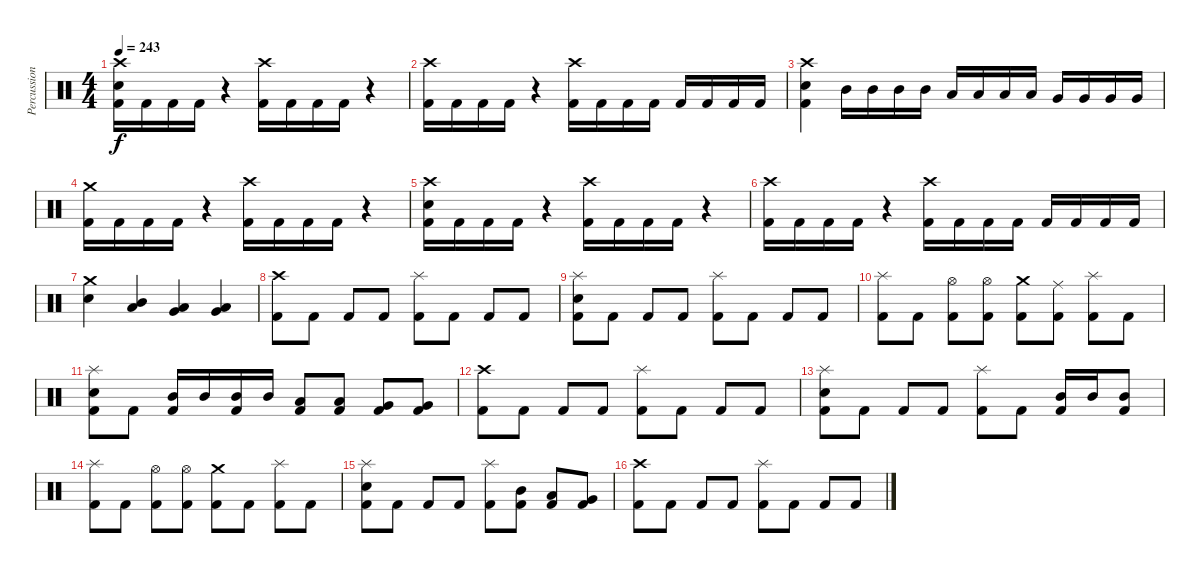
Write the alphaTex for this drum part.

\track ("Percussion" "Percussion") {solo instrument percussion}
\staff {score}
\articulation defaults
\ts (4 4)
\tempo 243
\clef neutral
\ks c
("Crash high (hit)" "Electric Snare (hit)" "Kick (hit) 2").16{dy f} "Kick (hit) 2".16 "Kick (hit) 2".16 "Kick (hit) 2".16 r.4 ("Crash high (hit)" "Kick (hit) 2").16 "Kick (hit) 2".16 "Kick (hit) 2".16 "Kick (hit) 2".16 r.4 |
("Crash high (hit)" "Kick (hit) 2").16 "Kick (hit) 2".16 "Kick (hit) 2".16 "Kick (hit) 2".16 r.4 ("Crash high (hit)" "Kick (hit) 2").16 "Kick (hit) 2".16 "Kick (hit) 2".16 "Kick (hit) 2".16 "Kick (hit) 2".16 "Kick (hit) 2".16 "Kick (hit) 2".16 "Kick (hit) 2".16 |
("Crash high (hit)" "Electric Snare (hit)" "Kick (hit) 2").4 "Mid Tom (hit)".16 "Mid Tom (hit)".16 "Mid Tom (hit)".16 "Mid Tom (hit)".16 "Low Tom (hit)".16 "Low Tom (hit)".16 "Low Tom (hit)".16 "Low Tom (hit)".16 "Very Low Tom (hit)".16 "Very Low Tom (hit)".16 "Very Low Tom (hit)".16 "Very Low Tom (hit)".16 |
("Crash medium (hit)" "Kick (hit) 2").16 "Kick (hit) 2".16 "Kick (hit) 2".16 "Kick (hit) 2".16 r.4 ("Crash high (hit)" "Kick (hit) 2").16 "Kick (hit) 2".16 "Kick (hit) 2".16 "Kick (hit) 2".16 r.4 |
("Crash high (hit)" "Electric Snare (hit)" "Kick (hit) 2").16 "Kick (hit) 2".16 "Kick (hit) 2".16 "Kick (hit) 2".16 r.4 ("Crash high (hit)" "Kick (hit) 2").16 "Kick (hit) 2".16 "Kick (hit) 2".16 "Kick (hit) 2".16 r.4 |
("Crash high (hit)" "Kick (hit) 2").16 "Kick (hit) 2".16 "Kick (hit) 2".16 "Kick (hit) 2".16 r.4 ("Crash high (hit)" "Kick (hit) 2").16 "Kick (hit) 2".16 "Kick (hit) 2".16 "Kick (hit) 2".16 "Kick (hit) 2".16 "Kick (hit) 2".16 "Kick (hit) 2".16 "Kick (hit) 2".16 |
("Crash medium (hit)" "Electric Snare (hit)").4 ("Mid Tom (hit)" "Low Tom (hit)").4 ("Low Tom (hit)" "Very Low Tom (hit)").4 ("Very Low Tom (hit)" "Low Floor Tom (hit)").4 |
("Crash high (hit)" "Kick (hit) 2").8 "Kick (hit) 2".8 "Kick (hit) 2".8 "Kick (hit) 2".8 ("Splash (hit)" "Kick (hit) 2").8 "Kick (hit) 2".8 "Kick (hit) 2".8 "Kick (hit) 2".8 |
("Splash (hit)" "Electric Snare (hit)" "Kick (hit) 2").8 "Kick (hit) 2".8 "Kick (hit) 2".8 "Kick (hit) 2".8 ("Splash (hit)" "Kick (hit) 2").8 "Kick (hit) 2".8 "Kick (hit) 2".8 "Kick (hit) 2".8 |
("Splash (hit)" "Kick (hit) 2").8 "Kick (hit) 2".8 ("Hi-Hat (open)" "Kick (hit) 2").8 ("Hi-Hat (open)" "Kick (hit) 2").8 ("Crash medium (hit)" "Kick (hit) 2").8 ("Ride (middle)" "Kick (hit) 2").8 ("Splash (hit)" "Kick (hit) 2").8 "Kick (hit) 2".8 |
("Splash (hit)" "Electric Snare (hit)" "Kick (hit) 2").8 "Kick (hit) 2".8 ("Mid Tom (hit)" "Kick (hit) 2").16 "Mid Tom (hit)".16 ("Mid Tom (hit)" "Kick (hit) 2").16 "Mid Tom (hit)".16 ("Low Tom (hit)" "Kick (hit) 2").8 ("Low Tom (hit)" "Kick (hit) 2").8 ("Very Low Tom (hit)" "Kick (hit) 2").8 ("Very Low Tom (hit)" "Kick (hit) 2").8 |
("Crash high (hit)" "Kick (hit) 2").8 "Kick (hit) 2".8 "Kick (hit) 2".8 "Kick (hit) 2".8 ("Splash (hit)" "Kick (hit) 2").8 "Kick (hit) 2".8 "Kick (hit) 2".8 "Kick (hit) 2".8 |
("Splash (hit)" "Electric Snare (hit)" "Kick (hit) 2").8 "Kick (hit) 2".8 "Kick (hit) 2".8 "Kick (hit) 2".8 ("Splash (hit)" "Kick (hit) 2").8 "Kick (hit) 2".8 ("Mid Tom (hit)" "Kick (hit) 2").16 "Mid Tom (hit)".16 ("Mid Tom (hit)" "Kick (hit) 2").8 |
("Splash (hit)" "Kick (hit) 2").8 "Kick (hit) 2".8 ("Hi-Hat (open)" "Kick (hit) 2").8 ("Hi-Hat (open)" "Kick (hit) 2").8 ("Crash medium (hit)" "Kick (hit) 2").8 "Kick (hit) 2".8 ("Splash (hit)" "Kick (hit) 2").8 "Kick (hit) 2".8 |
("Splash (hit)" "Electric Snare (hit)" "Kick (hit) 2").8 "Kick (hit) 2".8 "Kick (hit) 2".8 "Kick (hit) 2".8 ("Splash (hit)" "Kick (hit) 2").8 ("Mid Tom (hit)" "Kick (hit) 2").8 ("Low Tom (hit)" "Kick (hit) 2").8 ("Very Low Tom (hit)" "Kick (hit) 2").8 |
("Crash high (hit)" "Kick (hit) 2").8 "Kick (hit) 2".8 "Kick (hit) 2".8 "Kick (hit) 2".8 ("Splash (hit)" "Kick (hit) 2").8 "Kick (hit) 2".8 "Kick (hit) 2".8 "Kick (hit) 2".8
